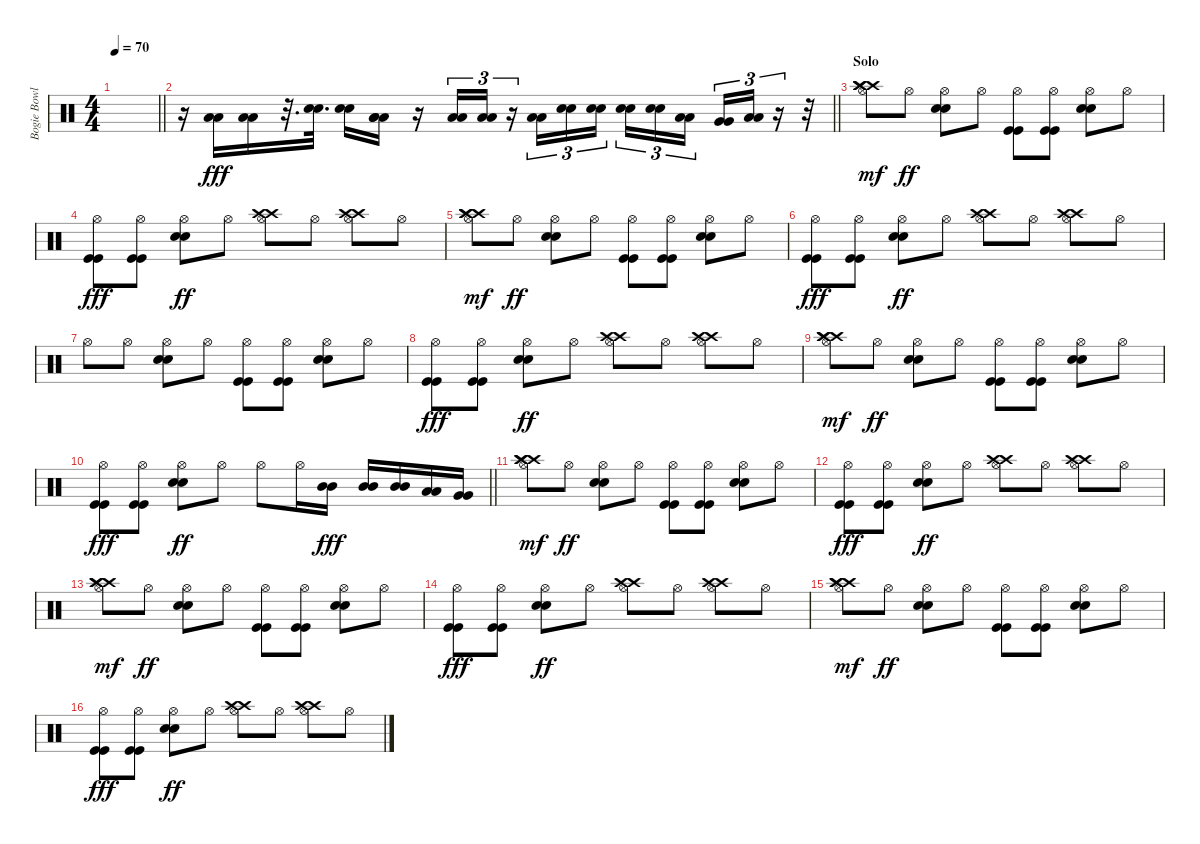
\track ("Bogie Bowles - Drums" "Bogie Bowl") {instrument percussion}
\staff {score}
\articulation defaults
\ts (4 4)
\tempo 70
\clef neutral
\barLineRight lightlight
\ks c
|
\barLineRight lightlight
r.16 ("Low Tom (hit)" "Low Tom (hit)").16{dy fff} ("Low Tom (hit)" "Low Tom (hit)").16 r.32{d} ("Snare (hit) 2" "Snare (hit) 2").32{d} ("Snare (hit) 2" "Snare (hit) 2").16 ("Low Tom (hit)" "Low Tom (hit)" "Low Tom (hit)").16 r.16 ("Low Tom (hit)" "Low Tom (hit)").16{tu (3 2)} ("Low Tom (hit)" "Low Tom (hit)").16{tu (3 2)} r.16{tu (3 2)} ("Low Tom (hit)" "Low Tom (hit)").16{tu (3 2)} ("Snare (hit) 2" "Snare (hit) 2").16{tu (3 2)} ("Snare (hit) 2" "Snare (hit) 2").16{tu (3 2) beam splitsecondary} ("Snare (hit) 2" "Snare (hit) 2").16{tu (3 2)} ("Snare (hit) 2" "Snare (hit) 2").16{tu (3 2)} ("Low Tom (hit)" "Low Tom (hit)").16{tu (3 2) beam splitsecondary} ("Very Low Tom (hit)" "Very Low Tom (hit)").16{tu (3 2)} ("Low Floor Tom (hit)" "Low Floor Tom (hit)").16{tu (3 2)} r.16{tu (3 2)} r.32 |
\section ("" "Solo")
("Hi-Hat (open)" "Crash high (hit)" "Crash high (hit)" "Crash high (hit)").8{dy mf} "Hi-Hat (open)".8{dy ff} ("Hi-Hat (open)" "Snare (hit) 2" "Snare (hit) 2").8 "Hi-Hat (open)".8 ("Hi-Hat (open)" "Kick (hit)" "Kick (hit)").8 ("Hi-Hat (open)" "Kick (hit)" "Kick (hit)").8 ("Hi-Hat (open)" "Snare (hit) 2" "Snare (hit) 2").8 "Hi-Hat (open)".8 |
("Hi-Hat (open)" "Kick (hit)" "Kick (hit)").8{dy fff} ("Hi-Hat (open)" "Kick (hit)" "Kick (hit)").8 ("Hi-Hat (open)" "Snare (hit) 2" "Snare (hit) 2").8{dy ff} "Hi-Hat (open)".8 ("Hi-Hat (open)" "Crash high (hit)" "Crash high (hit)").8 "Hi-Hat (open)".8 ("Hi-Hat (open)" "Crash high (hit)" "Crash high (hit)").8 "Hi-Hat (open)".8 |
("Hi-Hat (open)" "Crash high (hit)" "Crash high (hit)" "Crash high (hit)").8{dy mf} "Hi-Hat (open)".8{dy ff} ("Hi-Hat (open)" "Snare (hit) 2" "Snare (hit) 2").8 "Hi-Hat (open)".8 ("Hi-Hat (open)" "Kick (hit)" "Kick (hit)").8 ("Hi-Hat (open)" "Kick (hit)" "Kick (hit)").8 ("Hi-Hat (open)" "Snare (hit) 2" "Snare (hit) 2").8 "Hi-Hat (open)".8 |
("Hi-Hat (open)" "Kick (hit)" "Kick (hit)").8{dy fff} ("Hi-Hat (open)" "Kick (hit)" "Kick (hit)").8 ("Hi-Hat (open)" "Snare (hit) 2" "Snare (hit) 2").8{dy ff} "Hi-Hat (open)".8 ("Hi-Hat (open)" "Crash high (hit)" "Crash high (hit)").8 "Hi-Hat (open)".8 ("Hi-Hat (open)" "Crash high (hit)" "Crash high (hit)").8 "Hi-Hat (open)".8 |
"Hi-Hat (open)".8 "Hi-Hat (open)".8 ("Hi-Hat (open)" "Snare (hit) 2" "Snare (hit) 2").8 "Hi-Hat (open)".8 ("Hi-Hat (open)" "Kick (hit)" "Kick (hit)").8 ("Hi-Hat (open)" "Kick (hit)" "Kick (hit)").8 ("Hi-Hat (open)" "Snare (hit) 2" "Snare (hit) 2").8 "Hi-Hat (open)".8 |
("Hi-Hat (open)" "Kick (hit)" "Kick (hit)").8{dy fff} ("Hi-Hat (open)" "Kick (hit)" "Kick (hit)").8 ("Hi-Hat (open)" "Snare (hit) 2" "Snare (hit) 2").8{dy ff} "Hi-Hat (open)".8 ("Hi-Hat (open)" "Crash high (hit)" "Crash high (hit)").8 "Hi-Hat (open)".8 ("Hi-Hat (open)" "Crash high (hit)" "Crash high (hit)").8 "Hi-Hat (open)".8 |
("Hi-Hat (open)" "Crash high (hit)" "Crash high (hit)" "Crash high (hit)").8{dy mf} "Hi-Hat (open)".8{dy ff} ("Hi-Hat (open)" "Snare (hit) 2" "Snare (hit) 2").8 "Hi-Hat (open)".8 ("Hi-Hat (open)" "Kick (hit)" "Kick (hit)").8 ("Hi-Hat (open)" "Kick (hit)" "Kick (hit)").8 ("Hi-Hat (open)" "Snare (hit) 2" "Snare (hit) 2").8 "Hi-Hat (open)".8 |
\barLineRight lightlight
("Hi-Hat (open)" "Kick (hit)" "Kick (hit)").8{dy fff} ("Hi-Hat (open)" "Kick (hit)" "Kick (hit)").8 ("Hi-Hat (open)" "Snare (hit) 2" "Snare (hit) 2").8{dy ff} "Hi-Hat (open)".8 "Hi-Hat (open)".8 "Hi-Hat (open)".16 ("Mid Tom (hit)" "Mid Tom (hit)").16{dy fff} ("Mid Tom (hit)" "Mid Tom (hit)").16 ("Mid Tom (hit)" "Mid Tom (hit)").16 ("Low Tom (hit)" "Low Tom (hit)").16 ("Very Low Tom (hit)" "Very Low Tom (hit)").16 |
("Hi-Hat (open)" "Crash high (hit)" "Crash high (hit)" "Crash high (hit)").8{dy mf} "Hi-Hat (open)".8{dy ff} ("Hi-Hat (open)" "Snare (hit) 2" "Snare (hit) 2").8 "Hi-Hat (open)".8 ("Hi-Hat (open)" "Kick (hit)" "Kick (hit)").8 ("Hi-Hat (open)" "Kick (hit)" "Kick (hit)").8 ("Hi-Hat (open)" "Snare (hit) 2" "Snare (hit) 2").8 "Hi-Hat (open)".8 |
("Hi-Hat (open)" "Kick (hit)" "Kick (hit)").8{dy fff} ("Hi-Hat (open)" "Kick (hit)" "Kick (hit)").8 ("Hi-Hat (open)" "Snare (hit) 2" "Snare (hit) 2").8{dy ff} "Hi-Hat (open)".8 ("Hi-Hat (open)" "Crash high (hit)" "Crash high (hit)").8 "Hi-Hat (open)".8 ("Hi-Hat (open)" "Crash high (hit)" "Crash high (hit)").8 "Hi-Hat (open)".8 |
("Hi-Hat (open)" "Crash high (hit)" "Crash high (hit)" "Crash high (hit)").8{dy mf} "Hi-Hat (open)".8{dy ff} ("Hi-Hat (open)" "Snare (hit) 2" "Snare (hit) 2").8 "Hi-Hat (open)".8 ("Hi-Hat (open)" "Kick (hit)" "Kick (hit)").8 ("Hi-Hat (open)" "Kick (hit)" "Kick (hit)").8 ("Hi-Hat (open)" "Snare (hit) 2" "Snare (hit) 2").8 "Hi-Hat (open)".8 |
("Hi-Hat (open)" "Kick (hit)" "Kick (hit)").8{dy fff} ("Hi-Hat (open)" "Kick (hit)" "Kick (hit)").8 ("Hi-Hat (open)" "Snare (hit) 2" "Snare (hit) 2").8{dy ff} "Hi-Hat (open)".8 ("Hi-Hat (open)" "Crash high (hit)" "Crash high (hit)").8 "Hi-Hat (open)".8 ("Hi-Hat (open)" "Crash high (hit)" "Crash high (hit)").8 "Hi-Hat (open)".8 |
("Hi-Hat (open)" "Crash high (hit)" "Crash high (hit)" "Crash high (hit)").8{dy mf} "Hi-Hat (open)".8{dy ff} ("Hi-Hat (open)" "Snare (hit) 2" "Snare (hit) 2").8 "Hi-Hat (open)".8 ("Hi-Hat (open)" "Kick (hit)" "Kick (hit)").8 ("Hi-Hat (open)" "Kick (hit)" "Kick (hit)").8 ("Hi-Hat (open)" "Snare (hit) 2" "Snare (hit) 2").8 "Hi-Hat (open)".8 |
("Hi-Hat (open)" "Kick (hit)" "Kick (hit)").8{dy fff} ("Hi-Hat (open)" "Kick (hit)" "Kick (hit)").8 ("Hi-Hat (open)" "Snare (hit) 2" "Snare (hit) 2").8{dy ff} "Hi-Hat (open)".8 ("Hi-Hat (open)" "Crash high (hit)" "Crash high (hit)").8 "Hi-Hat (open)".8 ("Hi-Hat (open)" "Crash high (hit)" "Crash high (hit)").8 "Hi-Hat (open)".8
